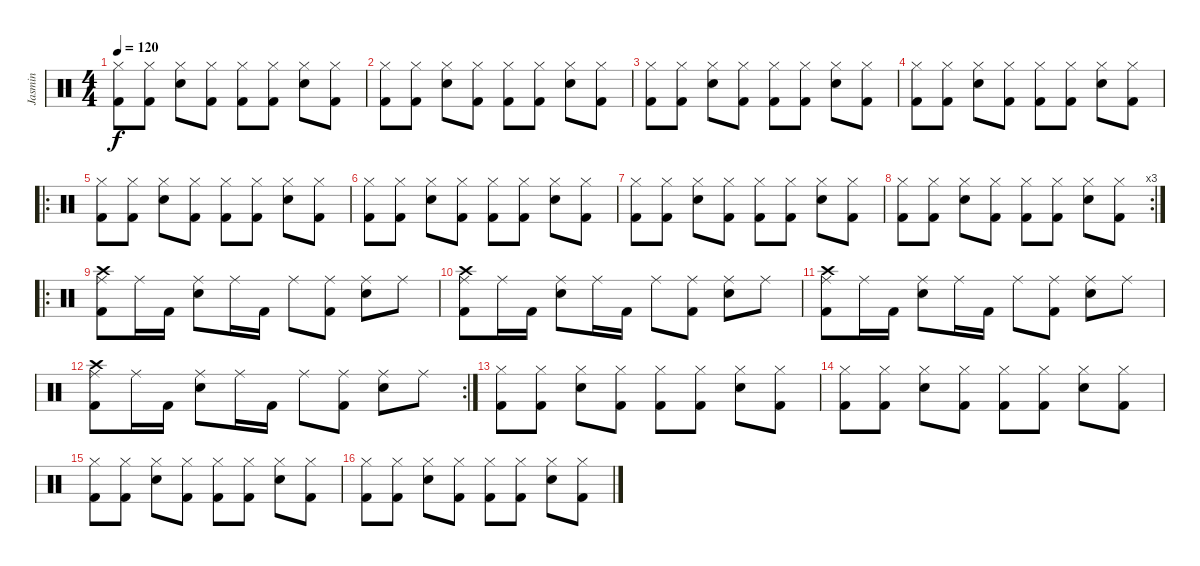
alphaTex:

\track ("Jasmin" "Jasmin") {instrument percussion}
\staff {score}
\articulation defaults
\ts (4 4)
\tempo 120
\clef neutral
\ks c
("Hi-Hat (closed)" "Kick (hit) 2").8{dy f} ("Hi-Hat (closed)" "Kick (hit) 2").8 ("Hi-Hat (closed)" "Electric Snare (hit)").8 ("Hi-Hat (closed)" "Kick (hit) 2").8 ("Hi-Hat (closed)" "Kick (hit) 2").8 ("Hi-Hat (closed)" "Kick (hit) 2").8 ("Hi-Hat (closed)" "Electric Snare (hit)").8 ("Hi-Hat (closed)" "Kick (hit) 2").8 |
("Hi-Hat (closed)" "Kick (hit) 2").8 ("Hi-Hat (closed)" "Kick (hit) 2").8 ("Hi-Hat (closed)" "Electric Snare (hit)").8 ("Hi-Hat (closed)" "Kick (hit) 2").8 ("Hi-Hat (closed)" "Kick (hit) 2").8 ("Hi-Hat (closed)" "Kick (hit) 2").8 ("Hi-Hat (closed)" "Electric Snare (hit)").8 ("Hi-Hat (closed)" "Kick (hit) 2").8 |
("Hi-Hat (closed)" "Kick (hit) 2").8 ("Hi-Hat (closed)" "Kick (hit) 2").8 ("Hi-Hat (closed)" "Electric Snare (hit)").8 ("Hi-Hat (closed)" "Kick (hit) 2").8 ("Hi-Hat (closed)" "Kick (hit) 2").8 ("Hi-Hat (closed)" "Kick (hit) 2").8 ("Hi-Hat (closed)" "Electric Snare (hit)").8 ("Hi-Hat (closed)" "Kick (hit) 2").8 |
("Hi-Hat (closed)" "Kick (hit) 2").8 ("Hi-Hat (closed)" "Kick (hit) 2").8 ("Hi-Hat (closed)" "Electric Snare (hit)").8 ("Hi-Hat (closed)" "Kick (hit) 2").8 ("Hi-Hat (closed)" "Kick (hit) 2").8 ("Hi-Hat (closed)" "Kick (hit) 2").8 ("Hi-Hat (closed)" "Electric Snare (hit)").8 ("Hi-Hat (closed)" "Kick (hit) 2").8 |
\ro
("Hi-Hat (closed)" "Kick (hit) 2").8 ("Hi-Hat (closed)" "Kick (hit) 2").8 ("Hi-Hat (closed)" "Electric Snare (hit)").8 ("Hi-Hat (closed)" "Kick (hit) 2").8 ("Hi-Hat (closed)" "Kick (hit) 2").8 ("Hi-Hat (closed)" "Kick (hit) 2").8 ("Hi-Hat (closed)" "Electric Snare (hit)").8 ("Hi-Hat (closed)" "Kick (hit) 2").8 |
("Hi-Hat (closed)" "Kick (hit) 2").8 ("Hi-Hat (closed)" "Kick (hit) 2").8 ("Hi-Hat (closed)" "Electric Snare (hit)").8 ("Hi-Hat (closed)" "Kick (hit) 2").8 ("Hi-Hat (closed)" "Kick (hit) 2").8 ("Hi-Hat (closed)" "Kick (hit) 2").8 ("Hi-Hat (closed)" "Electric Snare (hit)").8 ("Hi-Hat (closed)" "Kick (hit) 2").8 |
("Hi-Hat (closed)" "Kick (hit) 2").8 ("Hi-Hat (closed)" "Kick (hit) 2").8 ("Hi-Hat (closed)" "Electric Snare (hit)").8 ("Hi-Hat (closed)" "Kick (hit) 2").8 ("Hi-Hat (closed)" "Kick (hit) 2").8 ("Hi-Hat (closed)" "Kick (hit) 2").8 ("Hi-Hat (closed)" "Electric Snare (hit)").8 ("Hi-Hat (closed)" "Kick (hit) 2").8 |
\rc 3
("Hi-Hat (closed)" "Kick (hit) 2").8 ("Hi-Hat (closed)" "Kick (hit) 2").8 ("Hi-Hat (closed)" "Electric Snare (hit)").8 ("Hi-Hat (closed)" "Kick (hit) 2").8 ("Hi-Hat (closed)" "Kick (hit) 2").8 ("Hi-Hat (closed)" "Kick (hit) 2").8 ("Hi-Hat (closed)" "Electric Snare (hit)").8 ("Hi-Hat (closed)" "Kick (hit) 2").8 |
\ro
("Crash high (hit)" "Ride (middle)" "Kick (hit) 2").8 "Ride (middle)".16 "Kick (hit) 2".16 ("Ride (middle)" "Electric Snare (hit)").8 "Ride (middle)".16 "Kick (hit) 2".16 "Ride (middle)".8 ("Ride (middle)" "Kick (hit) 2").8 ("Ride (middle)" "Electric Snare (hit)").8 "Ride (middle)".8 |
("Crash high (hit)" "Ride (middle)" "Kick (hit) 2").8 "Ride (middle)".16 "Kick (hit) 2".16 ("Ride (middle)" "Electric Snare (hit)").8 "Ride (middle)".16 "Kick (hit) 2".16 "Ride (middle)".8 ("Ride (middle)" "Kick (hit) 2").8 ("Ride (middle)" "Electric Snare (hit)").8 "Ride (middle)".8 |
("Crash high (hit)" "Ride (middle)" "Kick (hit) 2").8 "Ride (middle)".16 "Kick (hit) 2".16 ("Ride (middle)" "Electric Snare (hit)").8 "Ride (middle)".16 "Kick (hit) 2".16 "Ride (middle)".8 ("Ride (middle)" "Kick (hit) 2").8 ("Ride (middle)" "Electric Snare (hit)").8 "Ride (middle)".8 |
\rc 2
("Crash high (hit)" "Ride (middle)" "Kick (hit) 2").8 "Ride (middle)".16 "Kick (hit) 2".16 ("Ride (middle)" "Electric Snare (hit)").8 "Ride (middle)".16 "Kick (hit) 2".16 "Ride (middle)".8 ("Ride (middle)" "Kick (hit) 2").8 ("Ride (middle)" "Electric Snare (hit)").8 "Ride (middle)".8 |
("Hi-Hat (closed)" "Kick (hit) 2").8 ("Hi-Hat (closed)" "Kick (hit) 2").8 ("Hi-Hat (closed)" "Electric Snare (hit)").8 ("Hi-Hat (closed)" "Kick (hit) 2").8 ("Hi-Hat (closed)" "Kick (hit) 2").8 ("Hi-Hat (closed)" "Kick (hit) 2").8 ("Hi-Hat (closed)" "Electric Snare (hit)").8 ("Hi-Hat (closed)" "Kick (hit) 2").8 |
("Hi-Hat (closed)" "Kick (hit) 2").8 ("Hi-Hat (closed)" "Kick (hit) 2").8 ("Hi-Hat (closed)" "Electric Snare (hit)").8 ("Hi-Hat (closed)" "Kick (hit) 2").8 ("Hi-Hat (closed)" "Kick (hit) 2").8 ("Hi-Hat (closed)" "Kick (hit) 2").8 ("Hi-Hat (closed)" "Electric Snare (hit)").8 ("Hi-Hat (closed)" "Kick (hit) 2").8 |
("Hi-Hat (closed)" "Kick (hit) 2").8 ("Hi-Hat (closed)" "Kick (hit) 2").8 ("Hi-Hat (closed)" "Electric Snare (hit)").8 ("Hi-Hat (closed)" "Kick (hit) 2").8 ("Hi-Hat (closed)" "Kick (hit) 2").8 ("Hi-Hat (closed)" "Kick (hit) 2").8 ("Hi-Hat (closed)" "Electric Snare (hit)").8 ("Hi-Hat (closed)" "Kick (hit) 2").8 |
("Hi-Hat (closed)" "Kick (hit) 2").8 ("Hi-Hat (closed)" "Kick (hit) 2").8 ("Hi-Hat (closed)" "Electric Snare (hit)").8 ("Hi-Hat (closed)" "Kick (hit) 2").8 ("Hi-Hat (closed)" "Kick (hit) 2").8 ("Hi-Hat (closed)" "Kick (hit) 2").8 ("Hi-Hat (closed)" "Electric Snare (hit)").8 ("Hi-Hat (closed)" "Kick (hit) 2").8
